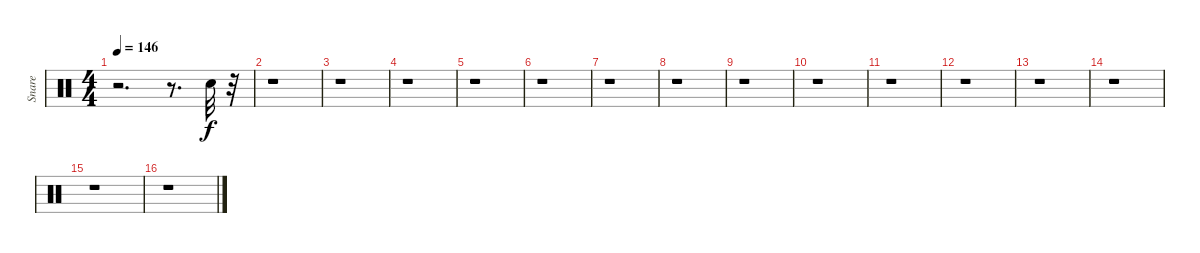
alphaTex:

\track ("Snare" "Snare") {instrument percussion}
\staff {score}
\articulation defaults
\ts (4 4)
\tempo 146
\clef neutral
\ks c
r.2{d dy f} r.8{d} "Snare (hit) 2".32 r.32 |
r.1 |
r.1 |
r.1 |
r.1 |
r.1 |
r.1 |
r.1 |
r.1 |
r.1 |
r.1 |
r.1 |
r.1 |
r.1 |
r.1 |
r.1
